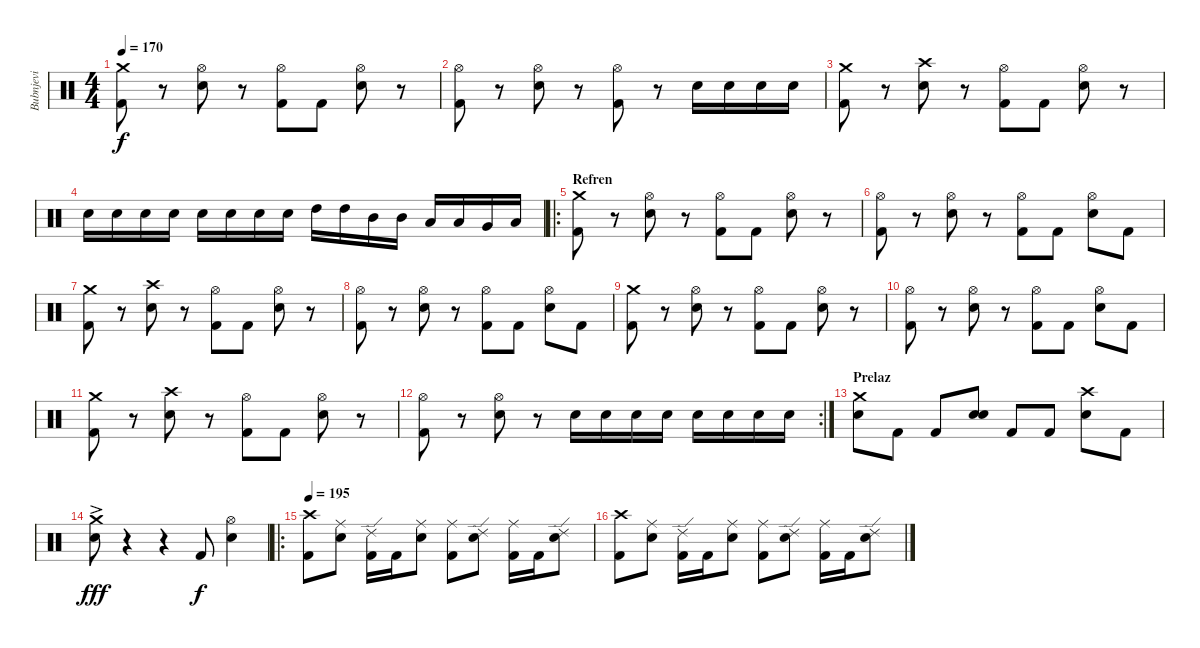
\track ("Bubnjevi" "Bubnjevi") {instrument percussion}
\staff {score}
\articulation defaults
\ts (4 4)
\tempo 170
\clef neutral
\ks c
("Crash medium (hit)" "Kick (hit) 2").8{dy f} r.8 ("Hi-Hat (open)" "Electric Snare (hit)").8 r.8 ("Hi-Hat (open)" "Kick (hit) 2").8 "Kick (hit) 2".8 ("Hi-Hat (open)" "Electric Snare (hit)").8 r.8 |
("Hi-Hat (open)" "Kick (hit) 2").8 r.8 ("Hi-Hat (open)" "Electric Snare (hit)").8 r.8 ("Hi-Hat (open)" "Kick (hit) 2").8 r.8 "Electric Snare (hit)".16 "Electric Snare (hit)".16 "Electric Snare (hit)".16 "Electric Snare (hit)".16 |
("Crash medium (hit)" "Kick (hit) 2").8 r.8 ("Crash high (hit)" "Electric Snare (hit)").8 r.8 ("Hi-Hat (open)" "Kick (hit) 2").8 "Kick (hit) 2".8 ("Hi-Hat (open)" "Electric Snare (hit)").8 r.8 |
"Electric Snare (hit)".16 "Electric Snare (hit)".16 "Electric Snare (hit)".16 "Electric Snare (hit)".16 "Electric Snare (hit)".16 "Electric Snare (hit)".16 "Electric Snare (hit)".16 "Electric Snare (hit)".16 "High Tom (hit)".16 "High Tom (hit)".16 "Mid Tom (hit)".16 "Mid Tom (hit)".16 "Low Tom (hit)".16 "Low Tom (hit)".16 "Very Low Tom (hit)".16 "Low Floor Tom (hit)".16 |
\ro
\section ("" "Refren")
("Crash medium (hit)" "Kick (hit) 2").8 r.8 ("Hi-Hat (open)" "Electric Snare (hit)").8 r.8 ("Hi-Hat (open)" "Kick (hit) 2").8 "Kick (hit) 2".8 ("Hi-Hat (open)" "Electric Snare (hit)").8 r.8 |
("Hi-Hat (open)" "Kick (hit) 2").8 r.8 ("Hi-Hat (open)" "Electric Snare (hit)").8 r.8 ("Hi-Hat (open)" "Kick (hit) 2").8 "Kick (hit) 2".8 ("Hi-Hat (open)" "Electric Snare (hit)").8 "Kick (hit) 2".8 |
("Crash medium (hit)" "Kick (hit) 2").8 r.8 ("Crash high (hit)" "Electric Snare (hit)").8 r.8 ("Hi-Hat (open)" "Kick (hit) 2").8 "Kick (hit) 2".8 ("Hi-Hat (open)" "Electric Snare (hit)").8 r.8 |
("Hi-Hat (open)" "Kick (hit) 2").8 r.8 ("Hi-Hat (open)" "Electric Snare (hit)").8 r.8 ("Hi-Hat (open)" "Kick (hit) 2").8 "Kick (hit) 2".8 ("Hi-Hat (open)" "Electric Snare (hit)").8 "Kick (hit) 2".8 |
("Crash medium (hit)" "Kick (hit) 2").8 r.8 ("Hi-Hat (open)" "Electric Snare (hit)").8 r.8 ("Hi-Hat (open)" "Kick (hit) 2").8 "Kick (hit) 2".8 ("Hi-Hat (open)" "Electric Snare (hit)").8 r.8 |
("Hi-Hat (open)" "Kick (hit) 2").8 r.8 ("Hi-Hat (open)" "Electric Snare (hit)").8 r.8 ("Hi-Hat (open)" "Kick (hit) 2").8 "Kick (hit) 2".8 ("Hi-Hat (open)" "Electric Snare (hit)").8 "Kick (hit) 2".8 |
("Crash medium (hit)" "Kick (hit) 2").8 r.8 ("Crash high (hit)" "Electric Snare (hit)").8 r.8 ("Hi-Hat (open)" "Kick (hit) 2").8 "Kick (hit) 2".8 ("Hi-Hat (open)" "Electric Snare (hit)").8 r.8 |
\rc 2
("Hi-Hat (open)" "Kick (hit) 2").8 r.8 ("Hi-Hat (open)" "Electric Snare (hit)").8 r.8 "Electric Snare (hit)".16 "Electric Snare (hit)".16 "Electric Snare (hit)".16 "Electric Snare (hit)".16 "Electric Snare (hit)".16 "Electric Snare (hit)".16 "Electric Snare (hit)".16 "Electric Snare (hit)".16 |
\section ("" "Prelaz")
("Crash medium (hit)" "Electric Snare (hit)").8 "Kick (hit) 2".8 "Kick (hit) 2".8 ("Electric Snare (hit)" "Electric Snare (hit)").8{bd 120} "Kick (hit) 2".8 "Kick (hit) 2".8 ("Crash high (hit)" "Electric Snare (hit)").8 "Kick (hit) 2".8 |
("Crash medium (hit)" "Electric Snare (hit)"{ac}).8{dy fff} r.4 r.4 "Kick (hit) 2".8{dy f} ("Hi-Hat (open)" "Electric Snare (hit)").4 |
\ro
\tempo 195
("Crash high (hit)" "Kick (hit) 2").8 ("Ride (middle)" "Electric Snare (hit)").8 ("Ride (edge) 2" "Kick (hit) 2").16 "Kick (hit) 2".16 ("Ride (middle)" "Electric Snare (hit)").8 ("Ride (middle)" "Kick (hit) 2").8 ("Ride (edge) 2" "Electric Snare (hit)").8 ("Ride (middle)" "Kick (hit) 2").16 "Kick (hit) 2".16 ("Ride (edge) 2" "Electric Snare (hit)").8 |
("Crash high (hit)" "Kick (hit) 2").8 ("Ride (middle)" "Electric Snare (hit)").8 ("Ride (edge) 2" "Kick (hit) 2").16 "Kick (hit) 2".16 ("Ride (middle)" "Electric Snare (hit)").8 ("Ride (middle)" "Kick (hit) 2").8 ("Ride (edge) 2" "Electric Snare (hit)").8 ("Ride (middle)" "Kick (hit) 2").16 "Kick (hit) 2".16 ("Ride (edge) 2" "Electric Snare (hit)").8
